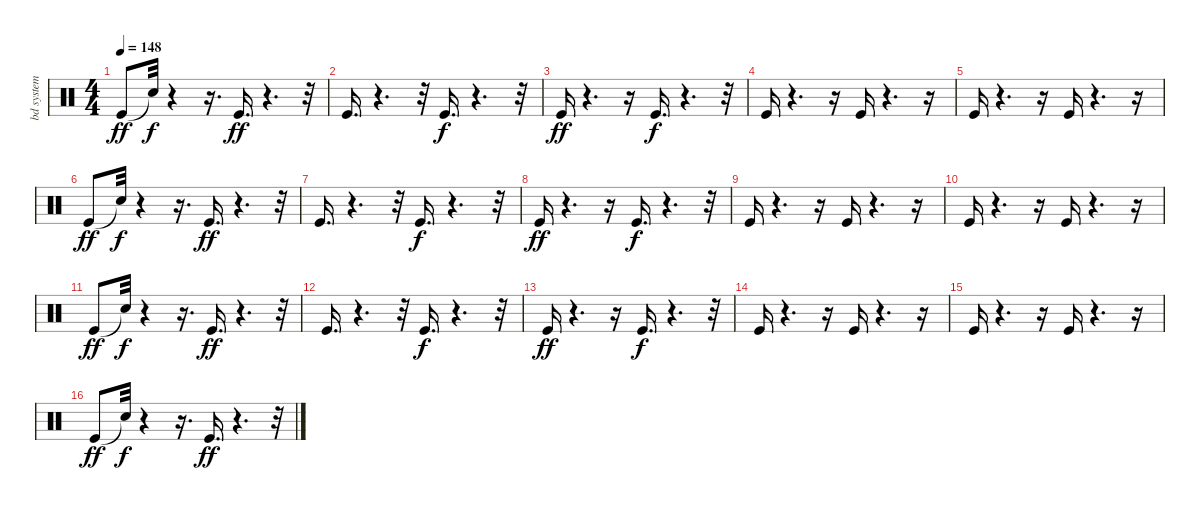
\track ("bd system kits      " "bd system ") {instrument percussion}
\staff {score}
\articulation defaults
\ts (4 4)
\tempo 148
\clef neutral
\ks c "Kick (hit)".8{dy ff} "Snare (hit)"{t}.32{dy f}
r.4 r.16{d} "Kick (hit)".16{d dy ff} r.4{d} r.32 |
"Kick (hit)".16{d} r.4{d} r.32 "Kick (hit)".16{d dy f} r.4{d} r.32 |
"Kick (hit)".16{dy ff} r.4{d} r.16 "Kick (hit)".16{d dy f} r.4{d} r.32 |
"Kick (hit)".16 r.4{d} r.16 "Kick (hit)".16 r.4{d} r.16 |
"Kick (hit)".16 r.4{d} r.16 "Kick (hit)".16 r.4{d} r.16 |
"Kick (hit)".8{dy ff} "Snare (hit)"{t}.32{dy f} r.4 r.16{d} "Kick (hit)".16{d dy ff} r.4{d} r.32 |
"Kick (hit)".16{d} r.4{d} r.32 "Kick (hit)".16{d dy f} r.4{d} r.32 |
"Kick (hit)".16{dy ff} r.4{d} r.16 "Kick (hit)".16{d dy f} r.4{d} r.32 |
"Kick (hit)".16 r.4{d} r.16 "Kick (hit)".16 r.4{d} r.16 |
"Kick (hit)".16 r.4{d} r.16 "Kick (hit)".16 r.4{d} r.16 |
"Kick (hit)".8{dy ff} "Snare (hit)"{t}.32{dy f} r.4 r.16{d} "Kick (hit)".16{d dy ff} r.4{d} r.32 |
"Kick (hit)".16{d} r.4{d} r.32 "Kick (hit)".16{d dy f} r.4{d} r.32 |
"Kick (hit)".16{dy ff} r.4{d} r.16 "Kick (hit)".16{d dy f} r.4{d} r.32 |
"Kick (hit)".16 r.4{d} r.16 "Kick (hit)".16 r.4{d} r.16 |
"Kick (hit)".16 r.4{d} r.16 "Kick (hit)".16 r.4{d} r.16 |
"Kick (hit)".8{dy ff} "Snare (hit)"{t}.32{dy f} r.4 r.16{d} "Kick (hit)".16{d dy ff} r.4{d} r.32
